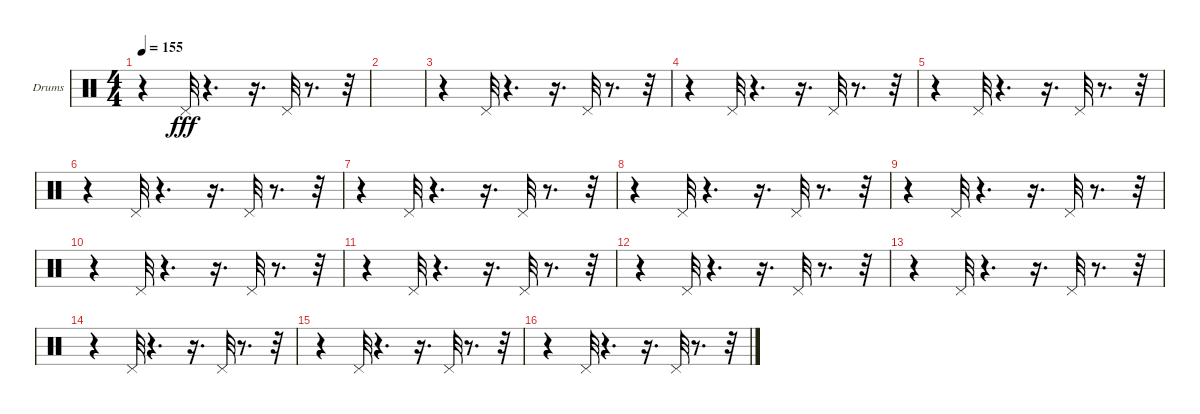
\bracketExtendMode groupsimilarinstruments
\firstSystemTrackNameOrientation horizontal
\otherSystemsTrackNameOrientation horizontal
\track ("Е. Кулаков" "Drums") {instrument percussion}
\staff {score}
\articulation defaults
\ts (4 4)
\tempo 155
\clef neutral
\ks c
r.4{dy fff} "Pedal Hi-Hat (hit)".32 r.4{d} r.16{d} "Pedal Hi-Hat (hit)".32 r.8{d} r.32 |
|
r.4 "Pedal Hi-Hat (hit)".32 r.4{d} r.16{d} "Pedal Hi-Hat (hit)".32 r.8{d} r.32 |
r.4 "Pedal Hi-Hat (hit)".32 r.4{d} r.16{d} "Pedal Hi-Hat (hit)".32 r.8{d} r.32 |
r.4 "Pedal Hi-Hat (hit)".32 r.4{d} r.16{d} "Pedal Hi-Hat (hit)".32 r.8{d} r.32 |
r.4 "Pedal Hi-Hat (hit)".32 r.4{d} r.16{d} "Pedal Hi-Hat (hit)".32 r.8{d} r.32 |
r.4 "Pedal Hi-Hat (hit)".32 r.4{d} r.16{d} "Pedal Hi-Hat (hit)".32 r.8{d} r.32 |
r.4 "Pedal Hi-Hat (hit)".32 r.4{d} r.16{d} "Pedal Hi-Hat (hit)".32 r.8{d} r.32 |
r.4 "Pedal Hi-Hat (hit)".32 r.4{d} r.16{d} "Pedal Hi-Hat (hit)".32 r.8{d} r.32 |
r.4 "Pedal Hi-Hat (hit)".32 r.4{d} r.16{d} "Pedal Hi-Hat (hit)".32 r.8{d} r.32 |
r.4 "Pedal Hi-Hat (hit)".32 r.4{d} r.16{d} "Pedal Hi-Hat (hit)".32 r.8{d} r.32 |
r.4 "Pedal Hi-Hat (hit)".32 r.4{d} r.16{d} "Pedal Hi-Hat (hit)".32 r.8{d} r.32 |
r.4 "Pedal Hi-Hat (hit)".32 r.4{d} r.16{d} "Pedal Hi-Hat (hit)".32 r.8{d} r.32 |
r.4 "Pedal Hi-Hat (hit)".32 r.4{d} r.16{d} "Pedal Hi-Hat (hit)".32 r.8{d} r.32 |
r.4 "Pedal Hi-Hat (hit)".32 r.4{d} r.16{d} "Pedal Hi-Hat (hit)".32 r.8{d} r.32 |
r.4 "Pedal Hi-Hat (hit)".32 r.4{d} r.16{d} "Pedal Hi-Hat (hit)".32 r.8{d} r.32
